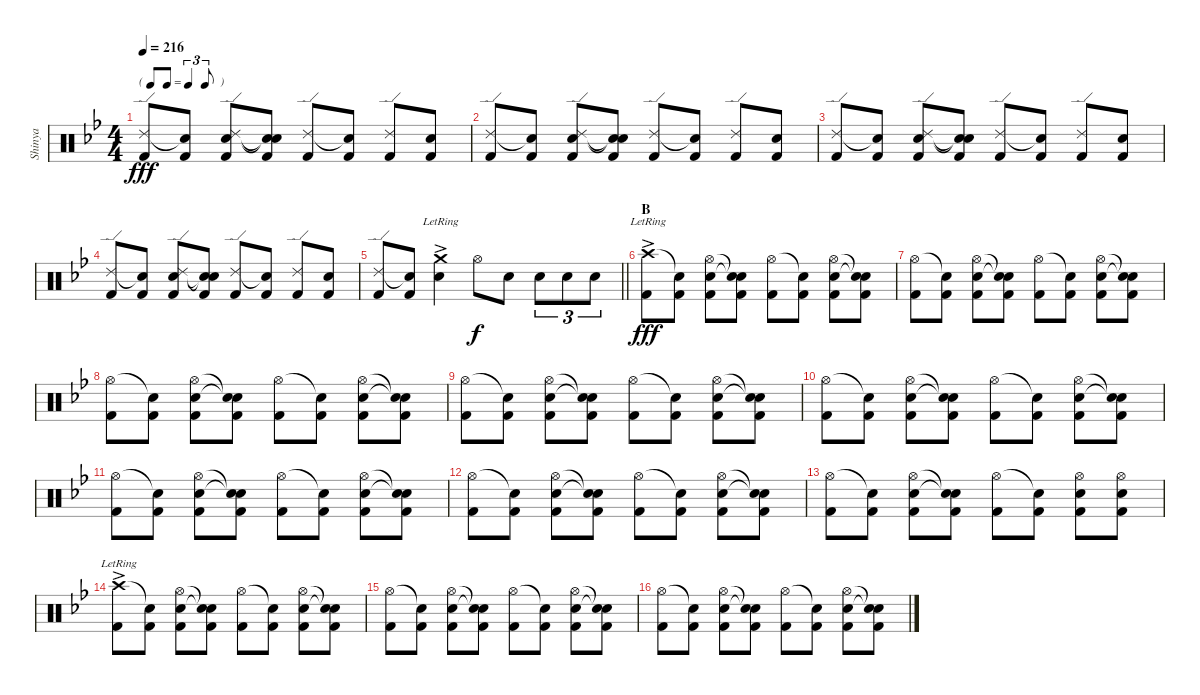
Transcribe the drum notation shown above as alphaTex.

\track ("Shinya" "Shinya") {instrument percussion}
\staff {score}
\articulation defaults
\ts (4 4)
\tf triplet8th
\tempo 216
\clef neutral
\ks bb
("Ride (edge) 2" "Kick (hit) 2").8{dy fff} ("Snare (hit)"{t} "Kick (hit) 2").8 ("Ride (edge) 2" "Electric Snare (hit)" "Kick (hit) 2").8 ("Snare (hit)"{t} "Snare (hit)"{t} "Kick (hit) 2").8 ("Ride (edge) 2" "Kick (hit) 2").8 ("Snare (hit)"{t} "Kick (hit) 2").8 ("Ride (edge) 2" "Kick (hit) 2").8 ("Electric Snare (hit)" "Kick (hit) 2").8 |
("Ride (edge) 2" "Kick (hit) 2").8 ("Snare (hit)"{t} "Kick (hit) 2").8 ("Ride (edge) 2" "Electric Snare (hit)" "Kick (hit) 2").8 ("Snare (hit)"{t} "Snare (hit)"{t} "Kick (hit) 2").8 ("Ride (edge) 2" "Kick (hit) 2").8 ("Snare (hit)"{t} "Kick (hit) 2").8 ("Ride (edge) 2" "Kick (hit) 2").8 ("Electric Snare (hit)" "Kick (hit) 2").8 |
("Ride (edge) 2" "Kick (hit) 2").8 ("Snare (hit)"{t} "Kick (hit) 2").8 ("Ride (edge) 2" "Electric Snare (hit)" "Kick (hit) 2").8 ("Snare (hit)"{t} "Snare (hit)"{t} "Kick (hit) 2").8 ("Ride (edge) 2" "Kick (hit) 2").8 ("Snare (hit)"{t} "Kick (hit) 2").8 ("Ride (edge) 2" "Kick (hit) 2").8 ("Electric Snare (hit)" "Kick (hit) 2").8 |
("Ride (edge) 2" "Kick (hit) 2").8 ("Snare (hit)"{t} "Kick (hit) 2").8 ("Ride (edge) 2" "Electric Snare (hit)" "Kick (hit) 2").8 ("Snare (hit)"{t} "Snare (hit)"{t} "Kick (hit) 2").8 ("Ride (edge) 2" "Kick (hit) 2").8 ("Snare (hit)"{t} "Kick (hit) 2").8 ("Ride (edge) 2" "Kick (hit) 2").8 ("Electric Snare (hit)" "Kick (hit) 2").8 |
\barLineRight lightlight
("Ride (edge) 2" "Kick (hit) 2").8 ("Snare (hit)"{t} "Kick (hit) 2").8 ("Crash medium (hit)"{ac lr} "Electric Snare (hit)").4 "Hi-Hat (open)".8{dy f} "Electric Snare (hit)".8 "Electric Snare (hit)".8{tu (3 2)} "Electric Snare (hit)".8{tu (3 2)} "Electric Snare (hit)".8{tu (3 2)} |
\section ("" "B")
("Crash high (hit)"{ac lr} "Kick (hit) 2").8{dy fff} ("Snare (hit)"{t} "Kick (hit) 2").8 ("Hi-Hat (open)" "Electric Snare (hit)" "Kick (hit) 2").8 ("Snare (hit)"{t} "Snare (hit)"{t} "Kick (hit) 2").8 ("Hi-Hat (open)" "Kick (hit) 2").8 ("Snare (hit)"{t} "Kick (hit) 2").8 ("Hi-Hat (open)" "Electric Snare (hit)" "Kick (hit) 2").8 ("Snare (hit)"{t} "Snare (hit)"{t} "Kick (hit) 2").8 |
("Hi-Hat (open)" "Kick (hit) 2").8 ("Snare (hit)"{t} "Kick (hit) 2").8 ("Hi-Hat (open)" "Electric Snare (hit)" "Kick (hit) 2").8 ("Snare (hit)"{t} "Snare (hit)"{t} "Kick (hit) 2").8 ("Hi-Hat (open)" "Kick (hit) 2").8 ("Snare (hit)"{t} "Kick (hit) 2").8 ("Hi-Hat (open)" "Electric Snare (hit)" "Kick (hit) 2").8 ("Snare (hit)"{t} "Snare (hit)"{t} "Kick (hit) 2").8 |
("Hi-Hat (open)" "Kick (hit) 2").8 ("Snare (hit)"{t} "Kick (hit) 2").8 ("Hi-Hat (open)" "Electric Snare (hit)" "Kick (hit) 2").8 ("Snare (hit)"{t} "Snare (hit)"{t} "Kick (hit) 2").8 ("Hi-Hat (open)" "Kick (hit) 2").8 ("Snare (hit)"{t} "Kick (hit) 2").8 ("Hi-Hat (open)" "Electric Snare (hit)" "Kick (hit) 2").8 ("Snare (hit)"{t} "Snare (hit)"{t} "Kick (hit) 2").8 |
("Hi-Hat (open)" "Kick (hit) 2").8 ("Snare (hit)"{t} "Kick (hit) 2").8 ("Hi-Hat (open)" "Electric Snare (hit)" "Kick (hit) 2").8 ("Snare (hit)"{t} "Snare (hit)"{t} "Kick (hit) 2").8 ("Hi-Hat (open)" "Kick (hit) 2").8 ("Snare (hit)"{t} "Kick (hit) 2").8 ("Hi-Hat (open)" "Electric Snare (hit)" "Kick (hit) 2").8 ("Snare (hit)"{t} "Snare (hit)"{t} "Kick (hit) 2").8 |
("Hi-Hat (open)" "Kick (hit) 2").8 ("Snare (hit)"{t} "Kick (hit) 2").8 ("Hi-Hat (open)" "Electric Snare (hit)" "Kick (hit) 2").8 ("Snare (hit)"{t} "Snare (hit)"{t} "Kick (hit) 2").8 ("Hi-Hat (open)" "Kick (hit) 2").8 ("Snare (hit)"{t} "Kick (hit) 2").8 ("Hi-Hat (open)" "Electric Snare (hit)" "Kick (hit) 2").8 ("Snare (hit)"{t} "Snare (hit)"{t} "Kick (hit) 2").8 |
("Hi-Hat (open)" "Kick (hit) 2").8 ("Snare (hit)"{t} "Kick (hit) 2").8 ("Hi-Hat (open)" "Electric Snare (hit)" "Kick (hit) 2").8 ("Snare (hit)"{t} "Snare (hit)"{t} "Kick (hit) 2").8 ("Hi-Hat (open)" "Kick (hit) 2").8 ("Snare (hit)"{t} "Kick (hit) 2").8 ("Hi-Hat (open)" "Electric Snare (hit)" "Kick (hit) 2").8 ("Snare (hit)"{t} "Snare (hit)"{t} "Kick (hit) 2").8 |
("Hi-Hat (open)" "Kick (hit) 2").8 ("Snare (hit)"{t} "Kick (hit) 2").8 ("Hi-Hat (open)" "Electric Snare (hit)" "Kick (hit) 2").8 ("Snare (hit)"{t} "Snare (hit)"{t} "Kick (hit) 2").8 ("Hi-Hat (open)" "Kick (hit) 2").8 ("Snare (hit)"{t} "Kick (hit) 2").8 ("Hi-Hat (open)" "Electric Snare (hit)" "Kick (hit) 2").8 ("Snare (hit)"{t} "Snare (hit)"{t} "Kick (hit) 2").8 |
("Hi-Hat (open)" "Kick (hit) 2").8 ("Snare (hit)"{t} "Kick (hit) 2").8 ("Hi-Hat (open)" "Electric Snare (hit)" "Kick (hit) 2").8 ("Snare (hit)"{t} "Snare (hit)"{t} "Kick (hit) 2").8 ("Hi-Hat (open)" "Kick (hit) 2").8 ("Snare (hit)"{t} "Kick (hit) 2").8 ("Hi-Hat (open)" "Electric Snare (hit)" "Kick (hit) 2").8 ("Hi-Hat (open)" "Electric Snare (hit)" "Kick (hit) 2").8 |
("Crash high (hit)"{ac lr} "Kick (hit) 2").8 ("Snare (hit)"{t} "Kick (hit) 2").8 ("Hi-Hat (open)" "Electric Snare (hit)" "Kick (hit) 2").8 ("Snare (hit)"{t} "Snare (hit)"{t} "Kick (hit) 2").8 ("Hi-Hat (open)" "Kick (hit) 2").8 ("Snare (hit)"{t} "Kick (hit) 2").8 ("Hi-Hat (open)" "Electric Snare (hit)" "Kick (hit) 2").8 ("Snare (hit)"{t} "Snare (hit)"{t} "Kick (hit) 2").8 |
("Hi-Hat (open)" "Kick (hit) 2").8 ("Snare (hit)"{t} "Kick (hit) 2").8 ("Hi-Hat (open)" "Electric Snare (hit)" "Kick (hit) 2").8 ("Snare (hit)"{t} "Snare (hit)"{t} "Kick (hit) 2").8 ("Hi-Hat (open)" "Kick (hit) 2").8 ("Snare (hit)"{t} "Kick (hit) 2").8 ("Hi-Hat (open)" "Electric Snare (hit)" "Kick (hit) 2").8 ("Snare (hit)"{t} "Snare (hit)"{t} "Kick (hit) 2").8 |
("Hi-Hat (open)" "Kick (hit) 2").8 ("Snare (hit)"{t} "Kick (hit) 2").8 ("Hi-Hat (open)" "Electric Snare (hit)" "Kick (hit) 2").8 ("Snare (hit)"{t} "Snare (hit)"{t} "Kick (hit) 2").8 ("Hi-Hat (open)" "Kick (hit) 2").8 ("Snare (hit)"{t} "Kick (hit) 2").8 ("Hi-Hat (open)" "Electric Snare (hit)" "Kick (hit) 2").8 ("Snare (hit)"{t} "Snare (hit)"{t} "Kick (hit) 2").8
